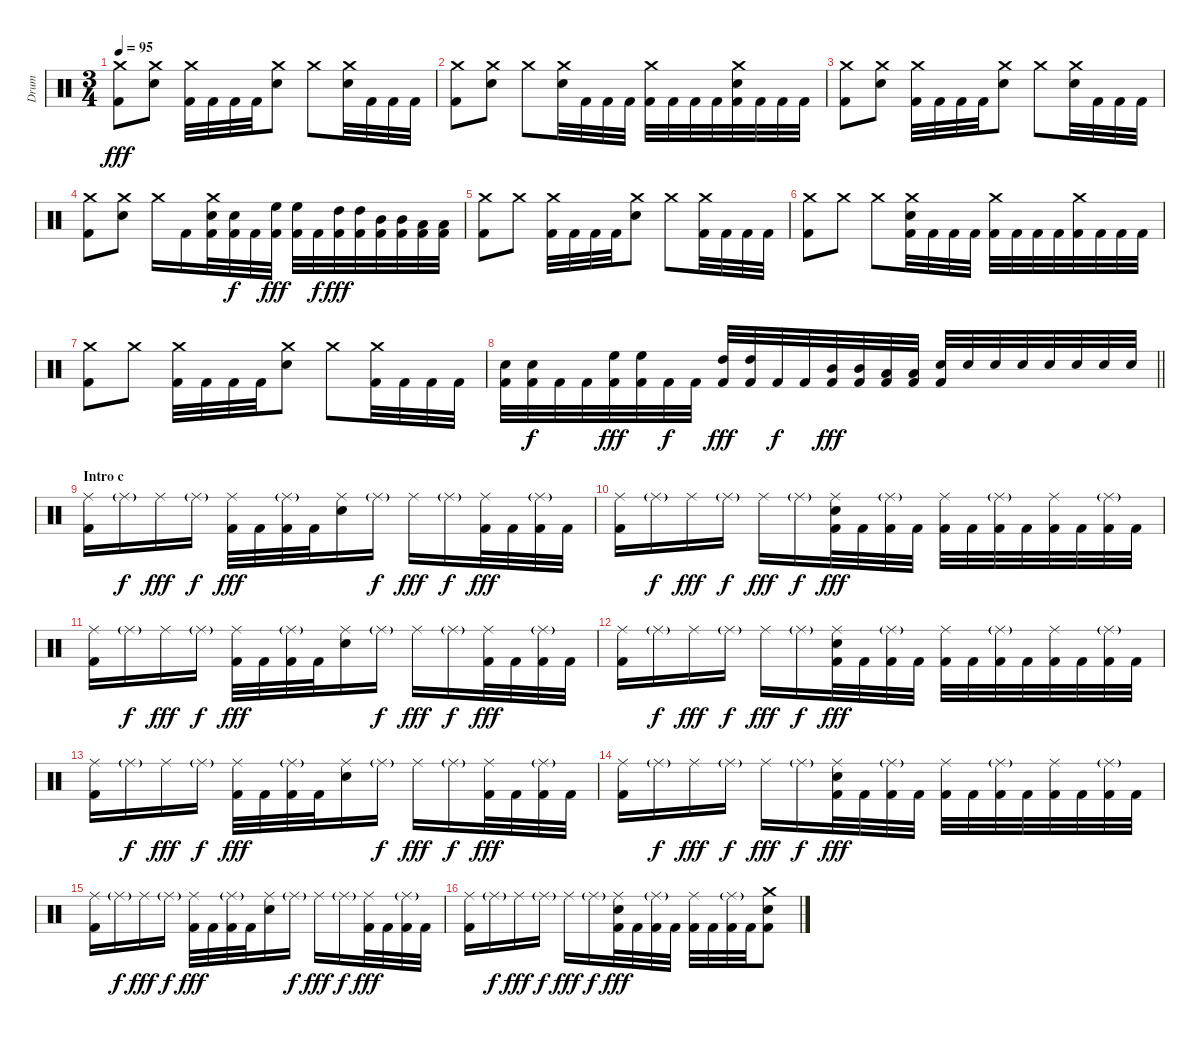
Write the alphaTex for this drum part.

\track ("Drum" "Drum") {instrument percussion}
\staff {score}
\articulation defaults
\ts (3 4)
\tempo 95
\clef neutral
\ks c
("Crash medium (hit)" "Kick (hit) 2").8{dy fff} ("Crash medium (hit)" "Electric Snare (hit)").8 ("Crash medium (hit)" "Kick (hit) 2").32 "Kick (hit) 2".32 "Kick (hit) 2".32 "Kick (hit) 2".32 ("Crash medium (hit)" "Electric Snare (hit)").8 "Crash medium (hit)".8 ("Crash medium (hit)" "Electric Snare (hit)").32 "Kick (hit) 2".32 "Kick (hit) 2".32 "Kick (hit) 2".32 |
("Crash medium (hit)" "Kick (hit) 2").8 ("Crash medium (hit)" "Electric Snare (hit)").8 "Crash medium (hit)".8 ("Crash medium (hit)" "Electric Snare (hit)").32 "Kick (hit) 2".32 "Kick (hit) 2".32 "Kick (hit) 2".32 ("Crash medium (hit)" "Kick (hit) 2").32 "Kick (hit) 2".32 "Kick (hit) 2".32 "Kick (hit) 2".32 ("Crash medium (hit)" "Electric Snare (hit)" "Kick (hit) 2").32 "Kick (hit) 2".32 "Kick (hit) 2".32 "Kick (hit) 2".32 |
("Crash medium (hit)" "Kick (hit) 2").8 ("Crash medium (hit)" "Electric Snare (hit)").8 ("Crash medium (hit)" "Kick (hit) 2").32 "Kick (hit) 2".32 "Kick (hit) 2".32 "Kick (hit) 2".32 ("Crash medium (hit)" "Electric Snare (hit)").8 "Crash medium (hit)".8 ("Crash medium (hit)" "Electric Snare (hit)").32 "Kick (hit) 2".32 "Kick (hit) 2".32 "Kick (hit) 2".32 |
("Crash medium (hit)" "Kick (hit) 2").8 ("Crash medium (hit)" "Electric Snare (hit)").8 "Crash medium (hit)".16 "Kick (hit) 2".16 ("Crash medium (hit)" "Electric Snare (hit)" "Kick (hit) 2").32 ("Electric Snare (hit)" "Kick (hit) 2").32{dy f} "Kick (hit) 2".32 ("High Floor Tom (hit)" "Kick (hit) 2").32{dy fff} ("High Floor Tom (hit)" "Kick (hit) 2").32 "Kick (hit) 2".32{dy f} ("High Tom (hit)" "Kick (hit) 2").32{dy fff} ("High Tom (hit)" "Kick (hit) 2").32 ("Mid Tom (hit)" "Kick (hit) 2").32 ("Mid Tom (hit)" "Kick (hit) 2").32 ("Low Tom (hit)" "Kick (hit) 2").32 ("Low Tom (hit)" "Kick (hit) 2").32 |
("Crash medium (hit)" "Kick (hit) 2").8 "Crash medium (hit)".8 ("Crash medium (hit)" "Kick (hit) 2").32 "Kick (hit) 2".32 "Kick (hit) 2".32 "Kick (hit) 2".32 ("Crash medium (hit)" "Electric Snare (hit)").8 "Crash medium (hit)".8 ("Crash medium (hit)" "Kick (hit) 2").32 "Kick (hit) 2".32 "Kick (hit) 2".32 "Kick (hit) 2".32 |
("Crash medium (hit)" "Kick (hit) 2").8 "Crash medium (hit)".8 "Crash medium (hit)".8 ("Crash medium (hit)" "Electric Snare (hit)" "Kick (hit) 2").32 "Kick (hit) 2".32 "Kick (hit) 2".32 "Kick (hit) 2".32 ("Crash medium (hit)" "Kick (hit) 2").32 "Kick (hit) 2".32 "Kick (hit) 2".32 "Kick (hit) 2".32 ("Crash medium (hit)" "Kick (hit) 2").32 "Kick (hit) 2".32 "Kick (hit) 2".32 "Kick (hit) 2".32 |
("Crash medium (hit)" "Kick (hit) 2").8 "Crash medium (hit)".8 ("Crash medium (hit)" "Kick (hit) 2").32 "Kick (hit) 2".32 "Kick (hit) 2".32 "Kick (hit) 2".32 ("Crash medium (hit)" "Electric Snare (hit)").8 "Crash medium (hit)".8 ("Crash medium (hit)" "Kick (hit) 2").32 "Kick (hit) 2".32 "Kick (hit) 2".32 "Kick (hit) 2".32 |
\barLineRight lightlight
("Electric Snare (hit)" "Kick (hit) 2").32 ("Electric Snare (hit)" "Kick (hit) 2").32{dy f} "Kick (hit) 2".32 "Kick (hit) 2".32 ("High Floor Tom (hit)" "Kick (hit) 2").32{dy fff} ("High Floor Tom (hit)" "Kick (hit) 2").32 "Kick (hit) 2".32{dy f} "Kick (hit) 2".32 ("High Tom (hit)" "Kick (hit) 2").32{dy fff} ("High Tom (hit)" "Kick (hit) 2").32 "Kick (hit) 2".32{dy f} "Kick (hit) 2".32 ("Mid Tom (hit)" "Kick (hit) 2").32{dy fff} ("Mid Tom (hit)" "Kick (hit) 2").32 ("Low Tom (hit)" "Kick (hit) 2").32 ("Low Tom (hit)" "Kick (hit) 2").32 ("Electric Snare (hit)" "Kick (hit) 2").32 "Electric Snare (hit)".32 "Electric Snare (hit)".32 "Electric Snare (hit)".32 "Electric Snare (hit)".32 "Electric Snare (hit)".32 "Electric Snare (hit)".32 "Electric Snare (hit)".32 |
\section ("" "Intro c")
("Ride (middle)" "Kick (hit) 2").16 "Ride (middle)"{g}.16{dy f} "Ride (middle)".16{dy fff} "Ride (middle)"{g}.16{dy f} ("Ride (middle)" "Kick (hit) 2").32{dy fff} "Kick (hit) 2".32 ("Ride (middle)"{g} "Kick (hit) 2").32 "Kick (hit) 2".32 ("Ride (middle)" "Electric Snare (hit)").16 "Ride (middle)"{g}.16{dy f} "Ride (middle)".16{dy fff} "Ride (middle)"{g}.16{dy f} ("Ride (middle)" "Kick (hit) 2").32{dy fff} "Kick (hit) 2".32 ("Ride (middle)"{g} "Kick (hit) 2").32 "Kick (hit) 2".32 |
("Ride (middle)" "Kick (hit) 2").16 "Ride (middle)"{g}.16{dy f} "Ride (middle)".16{dy fff} "Ride (middle)"{g}.16{dy f} "Ride (middle)".16{dy fff} "Ride (middle)"{g}.16{dy f} ("Ride (middle)" "Electric Snare (hit)" "Kick (hit) 2").32{dy fff} "Kick (hit) 2".32 ("Ride (middle)"{g} "Kick (hit) 2").32 "Kick (hit) 2".32 ("Ride (middle)" "Kick (hit) 2").32 "Kick (hit) 2".32 ("Ride (middle)"{g} "Kick (hit) 2").32 "Kick (hit) 2".32 ("Ride (middle)" "Kick (hit) 2").32 "Kick (hit) 2".32 ("Ride (middle)"{g} "Kick (hit) 2").32 "Kick (hit) 2".32 |
("Ride (middle)" "Kick (hit) 2").16 "Ride (middle)"{g}.16{dy f} "Ride (middle)".16{dy fff} "Ride (middle)"{g}.16{dy f} ("Ride (middle)" "Kick (hit) 2").32{dy fff} "Kick (hit) 2".32 ("Ride (middle)"{g} "Kick (hit) 2").32 "Kick (hit) 2".32 ("Ride (middle)" "Electric Snare (hit)").16 "Ride (middle)"{g}.16{dy f} "Ride (middle)".16{dy fff} "Ride (middle)"{g}.16{dy f} ("Ride (middle)" "Kick (hit) 2").32{dy fff} "Kick (hit) 2".32 ("Ride (middle)"{g} "Kick (hit) 2").32 "Kick (hit) 2".32 |
("Ride (middle)" "Kick (hit) 2").16 "Ride (middle)"{g}.16{dy f} "Ride (middle)".16{dy fff} "Ride (middle)"{g}.16{dy f} "Ride (middle)".16{dy fff} "Ride (middle)"{g}.16{dy f} ("Ride (middle)" "Electric Snare (hit)" "Kick (hit) 2").32{dy fff} "Kick (hit) 2".32 ("Ride (middle)"{g} "Kick (hit) 2").32 "Kick (hit) 2".32 ("Ride (middle)" "Kick (hit) 2").32 "Kick (hit) 2".32 ("Ride (middle)"{g} "Kick (hit) 2").32 "Kick (hit) 2".32 ("Ride (middle)" "Kick (hit) 2").32 "Kick (hit) 2".32 ("Ride (middle)"{g} "Kick (hit) 2").32 "Kick (hit) 2".32 |
("Ride (middle)" "Kick (hit) 2").16 "Ride (middle)"{g}.16{dy f} "Ride (middle)".16{dy fff} "Ride (middle)"{g}.16{dy f} ("Ride (middle)" "Kick (hit) 2").32{dy fff} "Kick (hit) 2".32 ("Ride (middle)"{g} "Kick (hit) 2").32 "Kick (hit) 2".32 ("Ride (middle)" "Electric Snare (hit)").16 "Ride (middle)"{g}.16{dy f} "Ride (middle)".16{dy fff} "Ride (middle)"{g}.16{dy f} ("Ride (middle)" "Kick (hit) 2").32{dy fff} "Kick (hit) 2".32 ("Ride (middle)"{g} "Kick (hit) 2").32 "Kick (hit) 2".32 |
("Ride (middle)" "Kick (hit) 2").16 "Ride (middle)"{g}.16{dy f} "Ride (middle)".16{dy fff} "Ride (middle)"{g}.16{dy f} "Ride (middle)".16{dy fff} "Ride (middle)"{g}.16{dy f} ("Ride (middle)" "Electric Snare (hit)" "Kick (hit) 2").32{dy fff} "Kick (hit) 2".32 ("Ride (middle)"{g} "Kick (hit) 2").32 "Kick (hit) 2".32 ("Ride (middle)" "Kick (hit) 2").32 "Kick (hit) 2".32 ("Ride (middle)"{g} "Kick (hit) 2").32 "Kick (hit) 2".32 ("Ride (middle)" "Kick (hit) 2").32 "Kick (hit) 2".32 ("Ride (middle)"{g} "Kick (hit) 2").32 "Kick (hit) 2".32 |
("Ride (middle)" "Kick (hit) 2").16 "Ride (middle)"{g}.16{dy f} "Ride (middle)".16{dy fff} "Ride (middle)"{g}.16{dy f} ("Ride (middle)" "Kick (hit) 2").32{dy fff} "Kick (hit) 2".32 ("Ride (middle)"{g} "Kick (hit) 2").32 "Kick (hit) 2".32 ("Ride (middle)" "Electric Snare (hit)").16 "Ride (middle)"{g}.16{dy f} "Ride (middle)".16{dy fff} "Ride (middle)"{g}.16{dy f} ("Ride (middle)" "Kick (hit) 2").32{dy fff} "Kick (hit) 2".32 ("Ride (middle)"{g} "Kick (hit) 2").32 "Kick (hit) 2".32 |
("Ride (middle)" "Kick (hit) 2").16 "Ride (middle)"{g}.16{dy f} "Ride (middle)".16{dy fff} "Ride (middle)"{g}.16{dy f} "Ride (middle)".16{dy fff} "Ride (middle)"{g}.16{dy f} ("Ride (middle)" "Electric Snare (hit)" "Kick (hit) 2").32{dy fff} "Kick (hit) 2".32 ("Ride (middle)"{g} "Kick (hit) 2").32 "Kick (hit) 2".32 ("Ride (middle)" "Kick (hit) 2").32 "Kick (hit) 2".32 ("Ride (middle)"{g} "Kick (hit) 2").32 "Kick (hit) 2".32 ("Crash medium (hit)" "Electric Snare (hit)" "Kick (hit) 2").8
